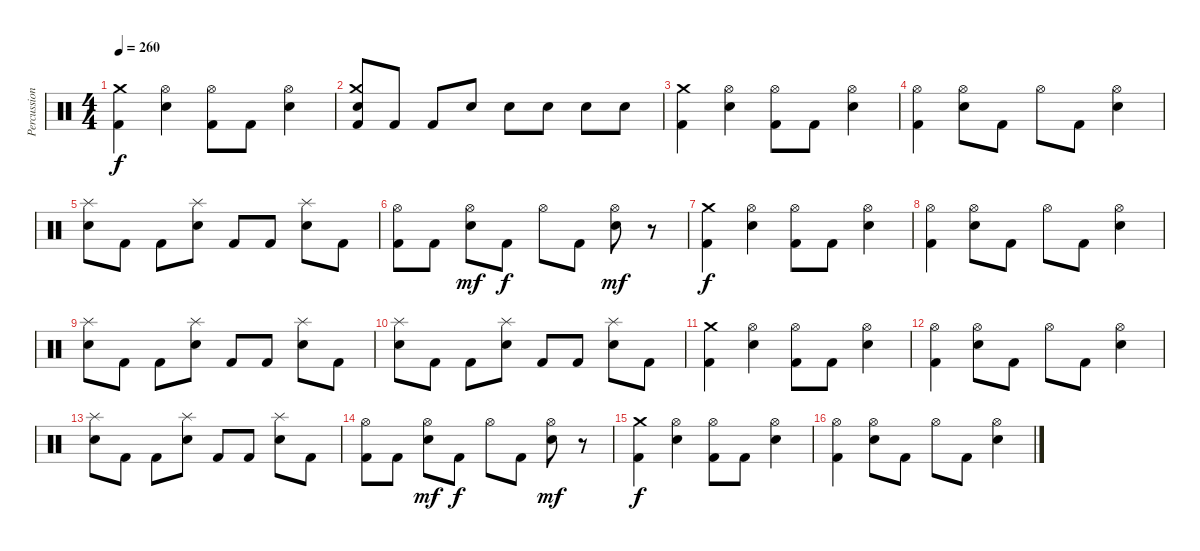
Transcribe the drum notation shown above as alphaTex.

\track ("Percussion" "Percussion") {instrument percussion}
\staff {score}
\articulation defaults
\ts (4 4)
\tempo 260
\clef neutral
\ks c
("Kick (hit) 2" "Crash medium (hit)").4{dy f} ("Electric Snare (hit)" "Hi-Hat (open)").4 ("Kick (hit) 2" "Hi-Hat (open)").8 "Kick (hit) 2".8 ("Electric Snare (hit)" "Hi-Hat (open)").4 |
("Kick (hit) 2" "Electric Snare (hit)" "Crash medium (hit)").8 "Kick (hit) 2".8 "Kick (hit) 2".8 "Electric Snare (hit)".8 "Electric Snare (hit)".8 "Electric Snare (hit)".8 "Electric Snare (hit)".8 "Electric Snare (hit)".8 |
("Kick (hit) 2" "Crash medium (hit)").4 ("Electric Snare (hit)" "Hi-Hat (open)").4 ("Kick (hit) 2" "Hi-Hat (open)").8 "Kick (hit) 2".8 ("Electric Snare (hit)" "Hi-Hat (open)").4 |
("Kick (hit) 2" "Hi-Hat (open)").4 ("Electric Snare (hit)" "Hi-Hat (open)").8 "Kick (hit) 2".8 "Hi-Hat (open)".8 "Kick (hit) 2".8 ("Electric Snare (hit)" "Hi-Hat (open)").4 |
("Electric Snare (hit)" "Splash (hit)").8 "Kick (hit) 2".8 "Kick (hit) 2".8 ("Electric Snare (hit)" "Splash (hit)").8 "Kick (hit) 2".8 "Kick (hit) 2".8 ("Electric Snare (hit)" "Splash (hit)").8 "Kick (hit) 2".8 |
("Hi-Hat (open)" "Kick (hit) 2").8 "Kick (hit) 2".8 ("Hi-Hat (open)" "Electric Snare (hit)").8{dy mf} "Kick (hit) 2".8{dy f} "Hi-Hat (open)".8 "Kick (hit) 2".8 ("Hi-Hat (open)" "Electric Snare (hit)").8{dy mf} r.8 |
("Kick (hit) 2" "Crash medium (hit)").4{dy f} ("Electric Snare (hit)" "Hi-Hat (open)").4 ("Kick (hit) 2" "Hi-Hat (open)").8 "Kick (hit) 2".8 ("Electric Snare (hit)" "Hi-Hat (open)").4 |
("Kick (hit) 2" "Hi-Hat (open)").4 ("Electric Snare (hit)" "Hi-Hat (open)").8 "Kick (hit) 2".8 "Hi-Hat (open)".8 "Kick (hit) 2".8 ("Electric Snare (hit)" "Hi-Hat (open)").4 |
("Splash (hit)" "Electric Snare (hit)").8 "Kick (hit) 2".8 "Kick (hit) 2".8 ("Splash (hit)" "Electric Snare (hit)").8 "Kick (hit) 2".8 "Kick (hit) 2".8 ("Splash (hit)" "Electric Snare (hit)").8 "Kick (hit) 2".8 |
("Splash (hit)" "Electric Snare (hit)").8 "Kick (hit) 2".8 "Kick (hit) 2".8 ("Splash (hit)" "Electric Snare (hit)").8 "Kick (hit) 2".8 "Kick (hit) 2".8 ("Splash (hit)" "Electric Snare (hit)").8 "Kick (hit) 2".8 |
("Kick (hit) 2" "Crash medium (hit)").4 ("Electric Snare (hit)" "Hi-Hat (open)").4 ("Kick (hit) 2" "Hi-Hat (open)").8 "Kick (hit) 2".8 ("Electric Snare (hit)" "Hi-Hat (open)").4 |
("Kick (hit) 2" "Hi-Hat (open)").4 ("Electric Snare (hit)" "Hi-Hat (open)").8 "Kick (hit) 2".8 "Hi-Hat (open)".8 "Kick (hit) 2".8 ("Electric Snare (hit)" "Hi-Hat (open)").4 |
("Electric Snare (hit)" "Splash (hit)").8 "Kick (hit) 2".8 "Kick (hit) 2".8 ("Electric Snare (hit)" "Splash (hit)").8 "Kick (hit) 2".8 "Kick (hit) 2".8 ("Electric Snare (hit)" "Splash (hit)").8 "Kick (hit) 2".8 |
("Hi-Hat (open)" "Kick (hit) 2").8 "Kick (hit) 2".8 ("Hi-Hat (open)" "Electric Snare (hit)").8{dy mf} "Kick (hit) 2".8{dy f} "Hi-Hat (open)".8 "Kick (hit) 2".8 ("Hi-Hat (open)" "Electric Snare (hit)").8{dy mf} r.8 |
("Kick (hit) 2" "Crash medium (hit)").4{dy f} ("Electric Snare (hit)" "Hi-Hat (open)").4 ("Kick (hit) 2" "Hi-Hat (open)").8 "Kick (hit) 2".8 ("Electric Snare (hit)" "Hi-Hat (open)").4 |
("Kick (hit) 2" "Hi-Hat (open)").4 ("Electric Snare (hit)" "Hi-Hat (open)").8 "Kick (hit) 2".8 "Hi-Hat (open)".8 "Kick (hit) 2".8 ("Electric Snare (hit)" "Hi-Hat (open)").4
